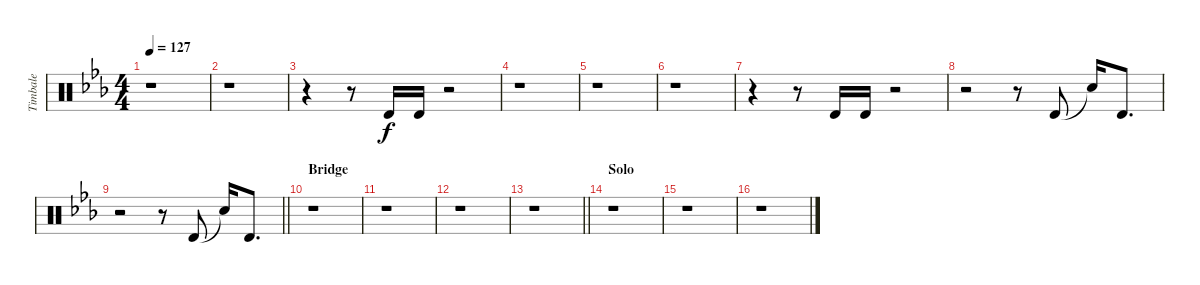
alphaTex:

\track ("Timbale" "Timbale") {instrument percussion}
\staff {score}
\articulation defaults
\ts (4 4)
\tempo 127
\clef neutral
\ks eb
r.1{dy f} |
r.1 |
r.4 r.8 "Timbale high (hit)".16 "Timbale high (hit)".16 r.2 |
r.1 |
r.1 |
r.1 |
r.4 r.8 "Timbale high (hit)".16 "Timbale high (hit)".16 r.2 |
r.2 r.8 "Timbale high (hit)".8 "Snare (hit)"{t}.16 "Timbale high (hit)".8{d} |
\barLineRight lightlight
r.2 r.8 "Timbale high (hit)".8 "Snare (hit)"{t}.16 "Timbale high (hit)".8{d} |
\section ("" "Bridge")
r.1 |
r.1 |
r.1 |
\barLineRight lightlight
r.1 |
\section ("" "Solo")
r.1 |
r.1 |
r.1
